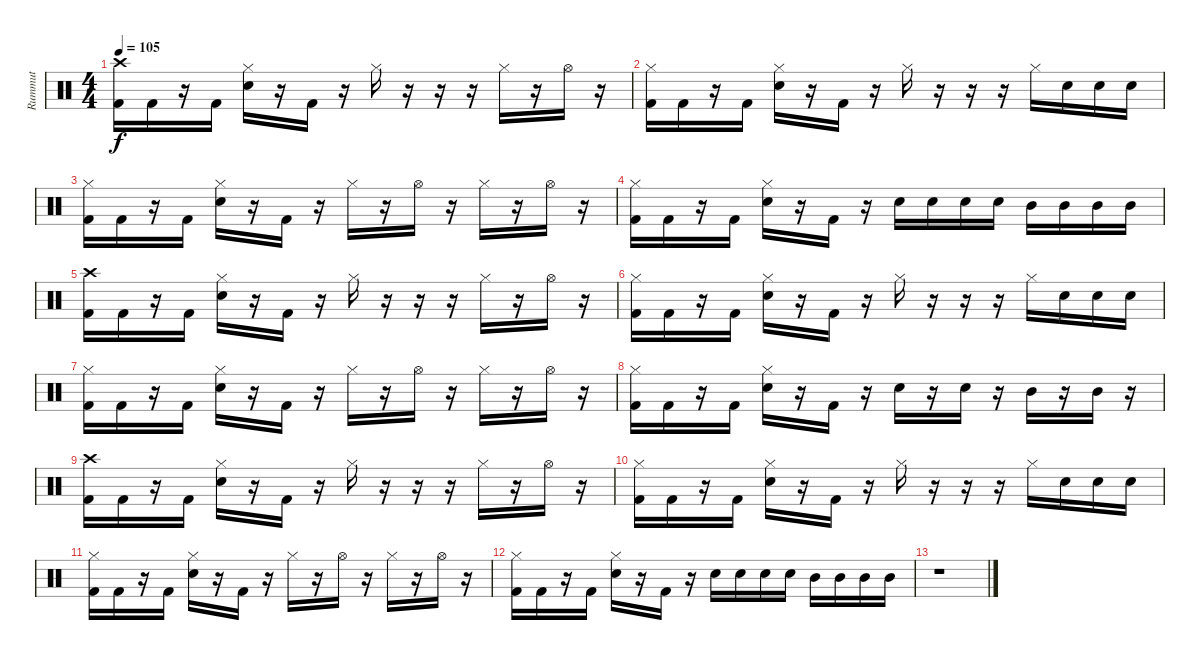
\track ("Rummut" "Rummut") {instrument percussion}
\staff {score}
\articulation defaults
\ts (4 4)
\tempo 105
\clef neutral
\ks c
("Crash high (hit)" "Kick (hit) 2").16{dy f} "Kick (hit) 2".16 r.16 "Kick (hit) 2".16 ("Hi-Hat (closed)" "Snare (hit) 2").16 r.16 "Kick (hit) 2".16 r.16 "Hi-Hat (closed)".16 r.16 r.16 r.16 "Hi-Hat (closed)".16 r.16 "Hi-Hat (open)".16 r.16 |
("Hi-Hat (closed)" "Kick (hit) 2").16 "Kick (hit) 2".16 r.16 "Kick (hit) 2".16 ("Hi-Hat (closed)" "Snare (hit) 2").16 r.16 "Kick (hit) 2".16 r.16 "Hi-Hat (closed)".16 r.16 r.16 r.16 "Hi-Hat (closed)".16 "Snare (hit) 2".16 "Snare (hit) 2".16 "Snare (hit) 2".16 |
("Hi-Hat (closed)" "Kick (hit) 2").16 "Kick (hit) 2".16 r.16 "Kick (hit) 2".16 ("Hi-Hat (closed)" "Snare (hit) 2").16 r.16 "Kick (hit) 2".16 r.16 "Hi-Hat (closed)".16 r.16 "Hi-Hat (open)".16 r.16 "Hi-Hat (closed)".16 r.16 "Hi-Hat (open)".16 r.16 |
("Hi-Hat (closed)" "Kick (hit) 2").16 "Kick (hit) 2".16 r.16 "Kick (hit) 2".16 ("Hi-Hat (closed)" "Snare (hit) 2").16 r.16 "Kick (hit) 2".16 r.16 "Snare (hit) 2".16 "Snare (hit) 2".16 "Snare (hit) 2".16 "Snare (hit) 2".16 "Mid Tom (hit)".16 "Mid Tom (hit)".16 "Mid Tom (hit)".16 "Mid Tom (hit)".16 |
("Crash high (hit)" "Kick (hit) 2").16 "Kick (hit) 2".16 r.16 "Kick (hit) 2".16 ("Hi-Hat (closed)" "Snare (hit) 2").16 r.16 "Kick (hit) 2".16 r.16 "Hi-Hat (closed)".16 r.16 r.16 r.16 "Hi-Hat (closed)".16 r.16 "Hi-Hat (open)".16 r.16 |
("Hi-Hat (closed)" "Kick (hit) 2").16 "Kick (hit) 2".16 r.16 "Kick (hit) 2".16 ("Hi-Hat (closed)" "Snare (hit) 2").16 r.16 "Kick (hit) 2".16 r.16 "Hi-Hat (closed)".16 r.16 r.16 r.16 "Hi-Hat (closed)".16 "Snare (hit) 2".16 "Snare (hit) 2".16 "Snare (hit) 2".16 |
("Hi-Hat (closed)" "Kick (hit) 2").16 "Kick (hit) 2".16 r.16 "Kick (hit) 2".16 ("Hi-Hat (closed)" "Snare (hit) 2").16 r.16 "Kick (hit) 2".16 r.16 "Hi-Hat (closed)".16 r.16 "Hi-Hat (open)".16 r.16 "Hi-Hat (closed)".16 r.16 "Hi-Hat (open)".16 r.16 |
("Hi-Hat (closed)" "Kick (hit) 2").16 "Kick (hit) 2".16 r.16 "Kick (hit) 2".16 ("Hi-Hat (closed)" "Snare (hit) 2").16 r.16 "Kick (hit) 2".16 r.16 "Snare (hit) 2".16 r.16 "Snare (hit) 2".16 r.16 "Mid Tom (hit)".16 r.16 "Mid Tom (hit)".16 r.16 |
("Crash high (hit)" "Kick (hit) 2").16 "Kick (hit) 2".16 r.16 "Kick (hit) 2".16 ("Hi-Hat (closed)" "Snare (hit) 2").16 r.16 "Kick (hit) 2".16 r.16 "Hi-Hat (closed)".16 r.16 r.16 r.16 "Hi-Hat (closed)".16 r.16 "Hi-Hat (open)".16 r.16 |
("Hi-Hat (closed)" "Kick (hit) 2").16 "Kick (hit) 2".16 r.16 "Kick (hit) 2".16 ("Hi-Hat (closed)" "Snare (hit) 2").16 r.16 "Kick (hit) 2".16 r.16 "Hi-Hat (closed)".16 r.16 r.16 r.16 "Hi-Hat (closed)".16 "Snare (hit) 2".16 "Snare (hit) 2".16 "Snare (hit) 2".16 |
("Hi-Hat (closed)" "Kick (hit) 2").16 "Kick (hit) 2".16 r.16 "Kick (hit) 2".16 ("Hi-Hat (closed)" "Snare (hit) 2").16 r.16 "Kick (hit) 2".16 r.16 "Hi-Hat (closed)".16 r.16 "Hi-Hat (open)".16 r.16 "Hi-Hat (closed)".16 r.16 "Hi-Hat (open)".16 r.16 |
("Hi-Hat (closed)" "Kick (hit) 2").16 "Kick (hit) 2".16 r.16 "Kick (hit) 2".16 ("Hi-Hat (closed)" "Snare (hit) 2").16 r.16 "Kick (hit) 2".16 r.16 "Snare (hit) 2".16 "Snare (hit) 2".16 "Snare (hit) 2".16 "Snare (hit) 2".16 "Mid Tom (hit)".16 "Mid Tom (hit)".16 "Mid Tom (hit)".16 "Mid Tom (hit)".16 |
r.1
